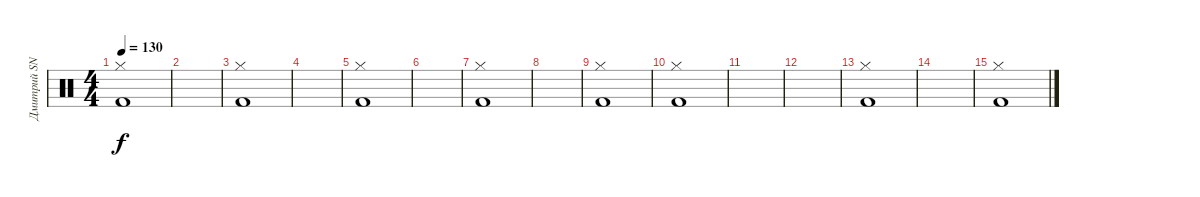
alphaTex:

\track ("Дмитрий SNAKE Хакимов" "Дмитрий SN") {instrument percussion}
\staff {score}
\articulation defaults
\ts (4 4)
\tempo 130
\clef neutral
\ks c
("Hi-Hat (closed)" "Kick (hit) 2").1{dy f} |
|
("Hi-Hat (closed)" "Kick (hit) 2").1 |
|
("Hi-Hat (closed)" "Kick (hit) 2").1 |
|
("Hi-Hat (closed)" "Kick (hit) 2").1 |
|
("Hi-Hat (closed)" "Kick (hit) 2").1 |
("Hi-Hat (closed)" "Kick (hit) 2").1 |
|
|
("Hi-Hat (closed)" "Kick (hit) 2").1 |
|
("Hi-Hat (closed)" "Kick (hit) 2").1
